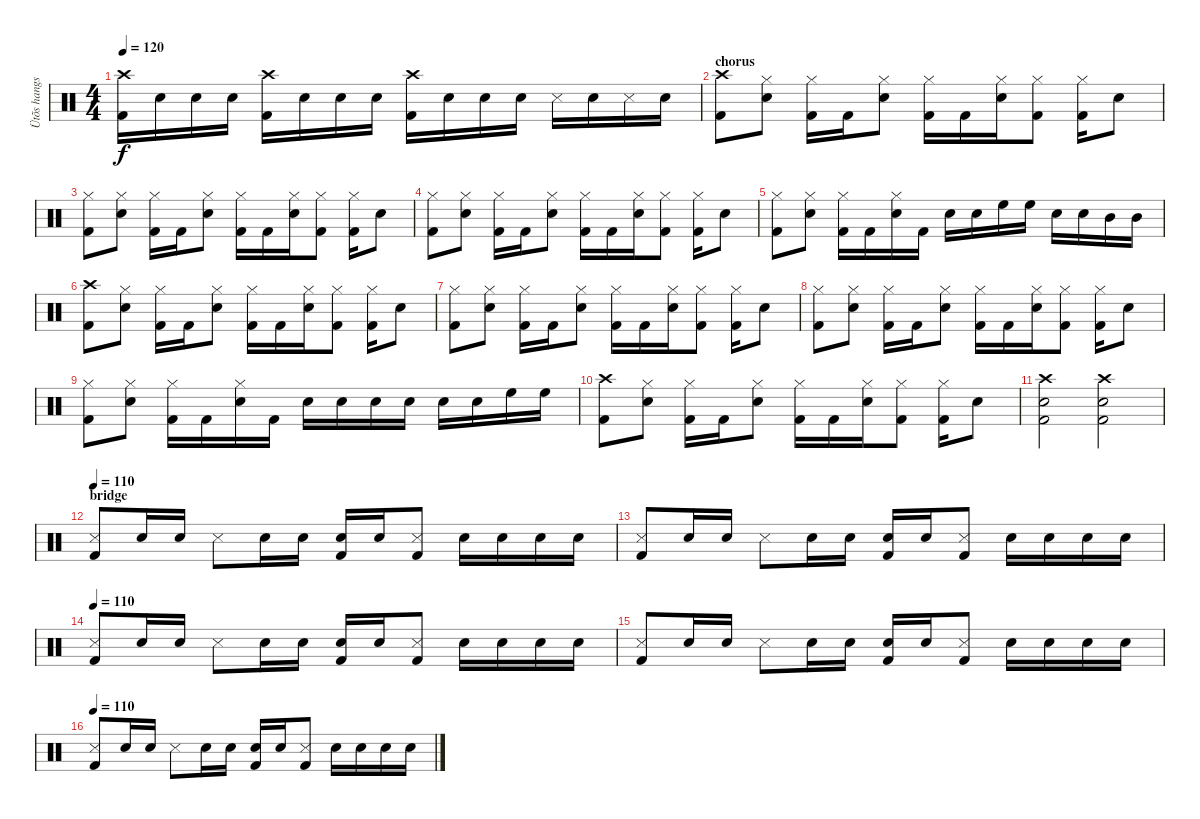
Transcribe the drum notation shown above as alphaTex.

\track ("Ütõs hangszer" "Ütõs hangs") {instrument percussion}
\staff {score}
\articulation defaults
\ts (4 4)
\tempo 120
\clef neutral
\ks c
("Crash high (hit)" "Kick (hit) 2").16{dy f} "Snare (hit) 2".16 "Snare (hit) 2".16 "Snare (hit) 2".16 ("Crash high (hit)" "Kick (hit) 2").16 "Snare (hit) 2".16 "Snare (hit) 2".16 "Snare (hit) 2".16 ("Crash high (hit)" "Kick (hit) 2").16 "Snare (hit) 2".16 "Snare (hit) 2".16 "Snare (hit) 2".16 "Snare (side stick) 3".16 "Snare (hit) 2".16 "Snare (side stick) 3".16 "Snare (hit) 2".16 |
\section ("" "chorus")
("Crash high (hit)" "Kick (hit) 2").8 ("Hi-Hat (closed)" "Snare (hit) 2").8 ("Hi-Hat (closed)" "Kick (hit) 2").16 "Kick (hit) 2".16 ("Hi-Hat (closed)" "Snare (hit) 2").8 ("Hi-Hat (closed)" "Kick (hit) 2").16 "Kick (hit) 2".16 ("Hi-Hat (closed)" "Snare (hit) 2").16 ("Hi-Hat (closed)" "Kick (hit) 2").8 ("Hi-Hat (closed)" "Kick (hit) 2").16 "Snare (hit) 2".8 |
("Hi-Hat (closed)" "Kick (hit) 2").8 ("Hi-Hat (closed)" "Snare (hit) 2").8 ("Hi-Hat (closed)" "Kick (hit) 2").16 "Kick (hit) 2".16 ("Hi-Hat (closed)" "Snare (hit) 2").8 ("Hi-Hat (closed)" "Kick (hit) 2").16 "Kick (hit) 2".16 ("Hi-Hat (closed)" "Snare (hit) 2").16 ("Hi-Hat (closed)" "Kick (hit) 2").8 ("Hi-Hat (closed)" "Kick (hit) 2").16 "Snare (hit) 2".8 |
("Hi-Hat (closed)" "Kick (hit) 2").8 ("Hi-Hat (closed)" "Snare (hit) 2").8 ("Hi-Hat (closed)" "Kick (hit) 2").16 "Kick (hit) 2".16 ("Hi-Hat (closed)" "Snare (hit) 2").8 ("Hi-Hat (closed)" "Kick (hit) 2").16 "Kick (hit) 2".16 ("Hi-Hat (closed)" "Snare (hit) 2").16 ("Hi-Hat (closed)" "Kick (hit) 2").8 ("Hi-Hat (closed)" "Kick (hit) 2").16 "Snare (hit) 2".8 |
("Hi-Hat (closed)" "Kick (hit) 2").8 ("Hi-Hat (closed)" "Snare (hit) 2").8 ("Hi-Hat (closed)" "Kick (hit) 2").16 "Kick (hit) 2".16 ("Hi-Hat (closed)" "Snare (hit) 2").16 "Kick (hit) 2".16 "Snare (hit) 2".16 "Snare (hit) 2".16 "High Floor Tom (hit)".16 "High Floor Tom (hit)".16 "Snare (hit) 2".16 "Snare (hit) 2".16 "Mid Tom (hit)".16 "Mid Tom (hit)".16 |
("Crash high (hit)" "Kick (hit) 2").8 ("Hi-Hat (closed)" "Snare (hit) 2").8 ("Hi-Hat (closed)" "Kick (hit) 2").16 "Kick (hit) 2".16 ("Hi-Hat (closed)" "Snare (hit) 2").8 ("Hi-Hat (closed)" "Kick (hit) 2").16 "Kick (hit) 2".16 ("Hi-Hat (closed)" "Snare (hit) 2").16 ("Hi-Hat (closed)" "Kick (hit) 2").8 ("Hi-Hat (closed)" "Kick (hit) 2").16 "Snare (hit) 2".8 |
("Hi-Hat (closed)" "Kick (hit) 2").8 ("Hi-Hat (closed)" "Snare (hit) 2").8 ("Hi-Hat (closed)" "Kick (hit) 2").16 "Kick (hit) 2".16 ("Hi-Hat (closed)" "Snare (hit) 2").8 ("Hi-Hat (closed)" "Kick (hit) 2").16 "Kick (hit) 2".16 ("Hi-Hat (closed)" "Snare (hit) 2").16 ("Hi-Hat (closed)" "Kick (hit) 2").8 ("Hi-Hat (closed)" "Kick (hit) 2").16 "Snare (hit) 2".8 |
("Hi-Hat (closed)" "Kick (hit) 2").8 ("Hi-Hat (closed)" "Snare (hit) 2").8 ("Hi-Hat (closed)" "Kick (hit) 2").16 "Kick (hit) 2".16 ("Hi-Hat (closed)" "Snare (hit) 2").8 ("Hi-Hat (closed)" "Kick (hit) 2").16 "Kick (hit) 2".16 ("Hi-Hat (closed)" "Snare (hit) 2").16 ("Hi-Hat (closed)" "Kick (hit) 2").8 ("Hi-Hat (closed)" "Kick (hit) 2").16 "Snare (hit) 2".8 |
("Hi-Hat (closed)" "Kick (hit) 2").8 ("Hi-Hat (closed)" "Snare (hit) 2").8 ("Hi-Hat (closed)" "Kick (hit) 2").16 "Kick (hit) 2".16 ("Hi-Hat (closed)" "Snare (hit) 2").16 "Kick (hit) 2".16 "Snare (hit) 2".16 "Snare (hit) 2".16 "Snare (hit) 2".16 "Snare (hit) 2".16 "Snare (hit) 2".16 "Snare (hit) 2".16 "High Floor Tom (hit)".16 "High Floor Tom (hit)".16 |
("Crash high (hit)" "Kick (hit) 2").8 ("Hi-Hat (closed)" "Snare (hit) 2").8 ("Hi-Hat (closed)" "Kick (hit) 2").16 "Kick (hit) 2".16 ("Hi-Hat (closed)" "Snare (hit) 2").8 ("Hi-Hat (closed)" "Kick (hit) 2").16 "Kick (hit) 2".16 ("Hi-Hat (closed)" "Snare (hit) 2").16 ("Hi-Hat (closed)" "Kick (hit) 2").8 ("Hi-Hat (closed)" "Kick (hit) 2").16 "Snare (hit) 2".8 |
("Crash high (hit)" "Snare (hit) 2" "Kick (hit) 2").2 ("Crash high (hit)" "Snare (hit) 2" "Kick (hit) 2").2 |
\section ("" "bridge")
\tempo 110
("Kick (hit) 2" "Snare (side stick) 3").8 "Snare (hit) 2".16 "Snare (hit) 2".16 "Snare (side stick) 3".8 "Snare (hit) 2".16 "Snare (hit) 2".16 ("Kick (hit) 2" "Snare (hit) 2").16 "Snare (hit) 2".16 ("Kick (hit) 2" "Snare (side stick) 3").8 "Snare (hit) 2".16 "Snare (hit) 2".16 "Snare (hit) 2".16 "Snare (hit) 2".16 |
("Kick (hit) 2" "Snare (side stick) 3").8 "Snare (hit) 2".16 "Snare (hit) 2".16 "Snare (side stick) 3".8 "Snare (hit) 2".16 "Snare (hit) 2".16 ("Kick (hit) 2" "Snare (hit) 2").16 "Snare (hit) 2".16 ("Kick (hit) 2" "Snare (side stick) 3").8 "Snare (hit) 2".16 "Snare (hit) 2".16 "Snare (hit) 2".16 "Snare (hit) 2".16 |
\tempo 110
("Kick (hit) 2" "Snare (side stick) 3").8 "Snare (hit) 2".16 "Snare (hit) 2".16 "Snare (side stick) 3".8 "Snare (hit) 2".16 "Snare (hit) 2".16 ("Kick (hit) 2" "Snare (hit) 2").16 "Snare (hit) 2".16 ("Kick (hit) 2" "Snare (side stick) 3").8 "Snare (hit) 2".16 "Snare (hit) 2".16 "Snare (hit) 2".16 "Snare (hit) 2".16 |
("Kick (hit) 2" "Snare (side stick) 3").8 "Snare (hit) 2".16 "Snare (hit) 2".16 "Snare (side stick) 3".8 "Snare (hit) 2".16 "Snare (hit) 2".16 ("Kick (hit) 2" "Snare (hit) 2").16 "Snare (hit) 2".16 ("Kick (hit) 2" "Snare (side stick) 3").8 "Snare (hit) 2".16 "Snare (hit) 2".16 "Snare (hit) 2".16 "Snare (hit) 2".16 |
\tempo 110
("Kick (hit) 2" "Snare (side stick) 3").8 "Snare (hit) 2".16 "Snare (hit) 2".16 "Snare (side stick) 3".8 "Snare (hit) 2".16 "Snare (hit) 2".16 ("Kick (hit) 2" "Snare (hit) 2").16 "Snare (hit) 2".16 ("Kick (hit) 2" "Snare (side stick) 3").8 "Snare (hit) 2".16 "Snare (hit) 2".16 "Snare (hit) 2".16 "Snare (hit) 2".16
